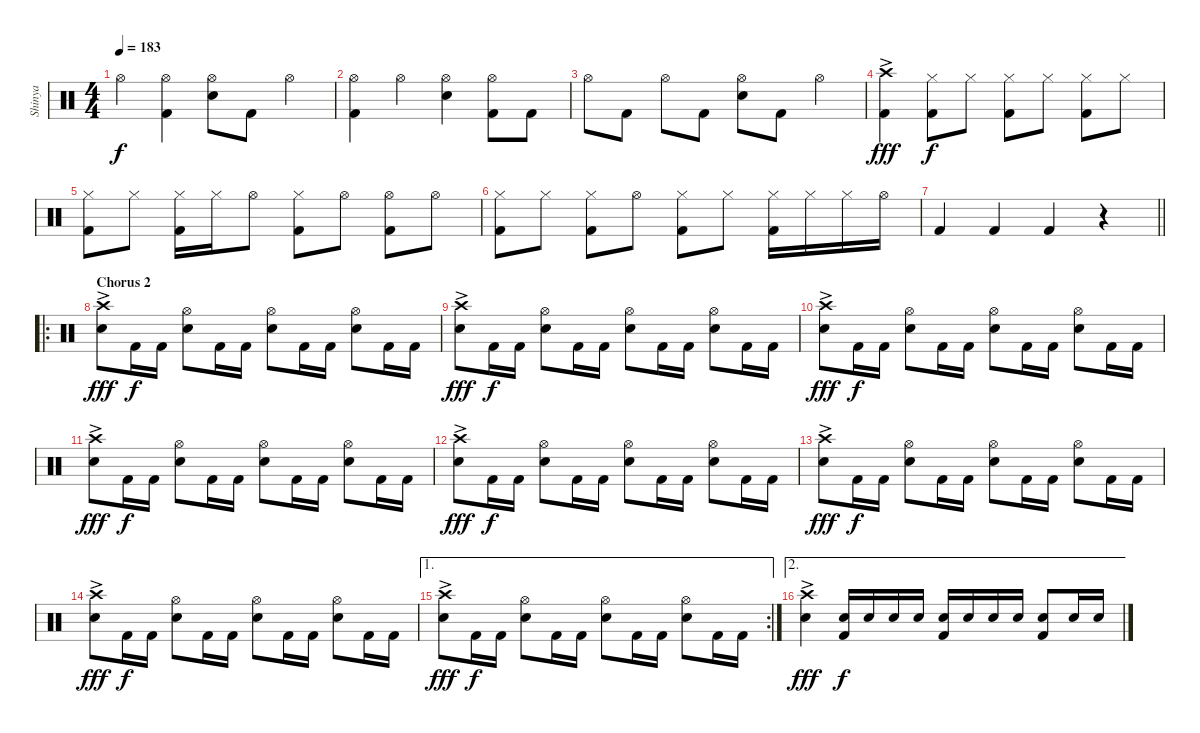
\track ("Shinya" "Shinya") {instrument percussion}
\staff {score}
\articulation defaults
\ts (4 4)
\tempo 183
\clef neutral
\ks c "Hi-Hat (open)".4{dy f}
("Hi-Hat (open)" "Kick (hit) 2").4 ("Hi-Hat (open)" "Snare (hit) 2").8 "Kick (hit) 2".8 "Hi-Hat (open)".4 |
("Hi-Hat (open)" "Kick (hit) 2").4 "Hi-Hat (open)".4 ("Hi-Hat (open)" "Snare (hit) 2").4 ("Hi-Hat (open)" "Kick (hit) 2").8 "Kick (hit) 2".8 |
"Hi-Hat (open)".8 "Kick (hit) 2".8 "Hi-Hat (open)".8 "Kick (hit) 2".8 ("Hi-Hat (open)" "Snare (hit) 2").8 "Kick (hit) 2".8 "Hi-Hat (open)".4 |
("Crash high (hit)"{ac} "Kick (hit) 2").4{dy fff} ("Hi-Hat (closed)" "Kick (hit) 2").8{dy f} "Hi-Hat (closed)".8 ("Hi-Hat (closed)" "Kick (hit) 2").8 "Hi-Hat (closed)".8 ("Hi-Hat (closed)" "Kick (hit) 2").8 "Hi-Hat (closed)".8 |
("Hi-Hat (closed)" "Kick (hit) 2").8 "Hi-Hat (closed)".8 ("Hi-Hat (closed)" "Kick (hit) 2").16 "Hi-Hat (closed)".16 "Hi-Hat (open)".8 ("Hi-Hat (closed)" "Kick (hit) 2").8 "Hi-Hat (open)".8 ("Hi-Hat (open)" "Kick (hit) 2").8 "Hi-Hat (open)".8 |
("Hi-Hat (closed)" "Kick (hit) 2").8 "Hi-Hat (closed)".8 ("Hi-Hat (closed)" "Kick (hit) 2").8 "Hi-Hat (open)".8 ("Hi-Hat (closed)" "Kick (hit) 2").8 "Hi-Hat (closed)".8 ("Hi-Hat (closed)" "Kick (hit) 2").16 "Hi-Hat (closed)".16 "Hi-Hat (closed)".16 "Hi-Hat (open)".16 |
\barLineRight lightlight "Kick (hit) 2".4 "Kick (hit) 2".4 "Kick (hit) 2".4
r.4 |
\ro
\section ("" "Chorus 2")
("Crash high (hit)"{ac} "Snare (hit) 2").8{dy fff} "Kick (hit) 2".16{dy f} "Kick (hit) 2".16 ("Hi-Hat (open)" "Snare (hit) 2").8 "Kick (hit) 2".16 "Kick (hit) 2".16 ("Hi-Hat (open)" "Snare (hit) 2").8 "Kick (hit) 2".16 "Kick (hit) 2".16 ("Hi-Hat (open)" "Snare (hit) 2").8 "Kick (hit) 2".16 "Kick (hit) 2".16 |
("Crash high (hit)"{ac} "Snare (hit) 2").8{dy fff} "Kick (hit) 2".16{dy f} "Kick (hit) 2".16 ("Hi-Hat (open)" "Snare (hit) 2").8 "Kick (hit) 2".16 "Kick (hit) 2".16 ("Hi-Hat (open)" "Snare (hit) 2").8 "Kick (hit) 2".16 "Kick (hit) 2".16 ("Hi-Hat (open)" "Snare (hit) 2").8 "Kick (hit) 2".16 "Kick (hit) 2".16 |
("Crash high (hit)"{ac} "Snare (hit) 2").8{dy fff} "Kick (hit) 2".16{dy f} "Kick (hit) 2".16 ("Hi-Hat (open)" "Snare (hit) 2").8 "Kick (hit) 2".16 "Kick (hit) 2".16 ("Hi-Hat (open)" "Snare (hit) 2").8 "Kick (hit) 2".16 "Kick (hit) 2".16 ("Hi-Hat (open)" "Snare (hit) 2").8 "Kick (hit) 2".16 "Kick (hit) 2".16 |
("Crash high (hit)"{ac} "Snare (hit) 2").8{dy fff} "Kick (hit) 2".16{dy f} "Kick (hit) 2".16 ("Hi-Hat (open)" "Snare (hit) 2").8 "Kick (hit) 2".16 "Kick (hit) 2".16 ("Hi-Hat (open)" "Snare (hit) 2").8 "Kick (hit) 2".16 "Kick (hit) 2".16 ("Hi-Hat (open)" "Snare (hit) 2").8 "Kick (hit) 2".16 "Kick (hit) 2".16 |
("Crash high (hit)"{ac} "Snare (hit) 2").8{dy fff} "Kick (hit) 2".16{dy f} "Kick (hit) 2".16 ("Hi-Hat (open)" "Snare (hit) 2").8 "Kick (hit) 2".16 "Kick (hit) 2".16 ("Hi-Hat (open)" "Snare (hit) 2").8 "Kick (hit) 2".16 "Kick (hit) 2".16 ("Hi-Hat (open)" "Snare (hit) 2").8 "Kick (hit) 2".16 "Kick (hit) 2".16 |
("Crash high (hit)"{ac} "Snare (hit) 2").8{dy fff} "Kick (hit) 2".16{dy f} "Kick (hit) 2".16 ("Hi-Hat (open)" "Snare (hit) 2").8 "Kick (hit) 2".16 "Kick (hit) 2".16 ("Hi-Hat (open)" "Snare (hit) 2").8 "Kick (hit) 2".16 "Kick (hit) 2".16 ("Hi-Hat (open)" "Snare (hit) 2").8 "Kick (hit) 2".16 "Kick (hit) 2".16 |
("Crash high (hit)"{ac} "Snare (hit) 2").8{dy fff} "Kick (hit) 2".16{dy f} "Kick (hit) 2".16 ("Hi-Hat (open)" "Snare (hit) 2").8 "Kick (hit) 2".16 "Kick (hit) 2".16 ("Hi-Hat (open)" "Snare (hit) 2").8 "Kick (hit) 2".16 "Kick (hit) 2".16 ("Hi-Hat (open)" "Snare (hit) 2").8 "Kick (hit) 2".16 "Kick (hit) 2".16 |
\ae 1
\rc 2
("Crash high (hit)"{ac} "Snare (hit) 2").8{dy fff} "Kick (hit) 2".16{dy f} "Kick (hit) 2".16 ("Hi-Hat (open)" "Snare (hit) 2").8 "Kick (hit) 2".16 "Kick (hit) 2".16 ("Hi-Hat (open)" "Snare (hit) 2").8 "Kick (hit) 2".16 "Kick (hit) 2".16 ("Hi-Hat (open)" "Snare (hit) 2").8 "Kick (hit) 2".16 "Kick (hit) 2".16 |
\ae 2
("Crash high (hit)"{ac} "Snare (hit) 2").4{dy fff} ("Snare (hit) 2" "Kick (hit) 2").16{dy f} "Snare (hit) 2".16 "Snare (hit) 2".16 "Snare (hit) 2".16 ("Snare (hit) 2" "Kick (hit) 2").16 "Snare (hit) 2".16 "Snare (hit) 2".16 "Snare (hit) 2".16 ("Snare (hit) 2" "Kick (hit) 2").8 "Snare (hit) 2".16 "Snare (hit) 2".16
